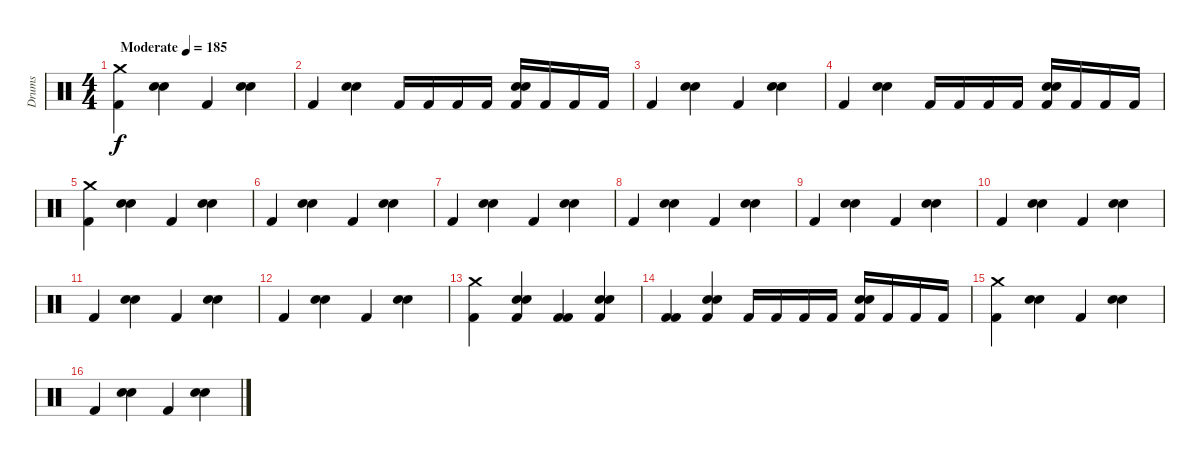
\track ("Drums" "Drums") {instrument percussion}
\staff {score}
\articulation defaults
\ts (4 4)
\tempo (185 "Moderate")
\clef neutral
\ks c
("Crash medium (hit)" "Kick (hit) 2").4{dy f} ("Electric Snare (hit)" "Snare (hit) 2").4 "Kick (hit) 2".4 ("Electric Snare (hit)" "Snare (hit) 2").4 |
"Kick (hit) 2".4 ("Electric Snare (hit)" "Snare (hit) 2").4 "Kick (hit) 2".16 "Kick (hit) 2".16 "Kick (hit) 2".16 "Kick (hit) 2".16 ("Kick (hit) 2" "Electric Snare (hit)" "Snare (hit) 2").16 "Kick (hit) 2".16 "Kick (hit) 2".16 "Kick (hit) 2".16 |
"Kick (hit) 2".4 ("Electric Snare (hit)" "Snare (hit) 2").4 "Kick (hit) 2".4 ("Electric Snare (hit)" "Snare (hit) 2").4 |
"Kick (hit) 2".4 ("Electric Snare (hit)" "Snare (hit) 2").4 "Kick (hit) 2".16 "Kick (hit) 2".16 "Kick (hit) 2".16 "Kick (hit) 2".16 ("Kick (hit) 2" "Electric Snare (hit)" "Snare (hit) 2").16 "Kick (hit) 2".16 "Kick (hit) 2".16 "Kick (hit) 2".16 |
("Crash medium (hit)" "Kick (hit) 2").4 ("Electric Snare (hit)" "Snare (hit) 2").4 "Kick (hit) 2".4 ("Electric Snare (hit)" "Snare (hit) 2").4 |
"Kick (hit) 2".4 ("Electric Snare (hit)" "Snare (hit) 2").4 "Kick (hit) 2".4 ("Snare (hit) 2" "Electric Snare (hit)").4 |
"Kick (hit) 2".4 ("Electric Snare (hit)" "Snare (hit) 2").4 "Kick (hit) 2".4 ("Electric Snare (hit)" "Snare (hit) 2").4 |
"Kick (hit) 2".4 ("Electric Snare (hit)" "Snare (hit) 2").4 "Kick (hit) 2".4 ("Snare (hit) 2" "Electric Snare (hit)").4 |
"Kick (hit) 2".4 ("Electric Snare (hit)" "Snare (hit) 2").4 "Kick (hit) 2".4 ("Electric Snare (hit)" "Snare (hit) 2").4 |
"Kick (hit) 2".4 ("Electric Snare (hit)" "Snare (hit) 2").4 "Kick (hit) 2".4 ("Snare (hit) 2" "Electric Snare (hit)").4 |
"Kick (hit) 2".4 ("Electric Snare (hit)" "Snare (hit) 2").4 "Kick (hit) 2".4 ("Electric Snare (hit)" "Snare (hit) 2").4 |
"Kick (hit) 2".4 ("Electric Snare (hit)" "Snare (hit) 2").4 "Kick (hit) 2".4 ("Snare (hit) 2" "Electric Snare (hit)").4 |
("Crash medium (hit)" "Kick (hit) 2").4 ("Kick (hit) 2" "Electric Snare (hit)" "Snare (hit) 2").4 ("Kick (hit) 2" "Kick (hit) 2").4 ("Kick (hit) 2" "Electric Snare (hit)" "Snare (hit) 2").4 |
("Kick (hit) 2" "Kick (hit) 2").4 ("Kick (hit) 2" "Electric Snare (hit)" "Snare (hit) 2").4 "Kick (hit) 2".16 "Kick (hit) 2".16 "Kick (hit) 2".16 "Kick (hit) 2".16 ("Kick (hit) 2" "Electric Snare (hit)" "Snare (hit) 2").16 "Kick (hit) 2".16 "Kick (hit) 2".16 "Kick (hit) 2".16 |
("Crash medium (hit)" "Kick (hit) 2").4 ("Electric Snare (hit)" "Snare (hit) 2").4 "Kick (hit) 2".4 ("Electric Snare (hit)" "Snare (hit) 2").4 |
"Kick (hit) 2".4 ("Electric Snare (hit)" "Snare (hit) 2").4 "Kick (hit) 2".4 ("Snare (hit) 2" "Electric Snare (hit)").4
